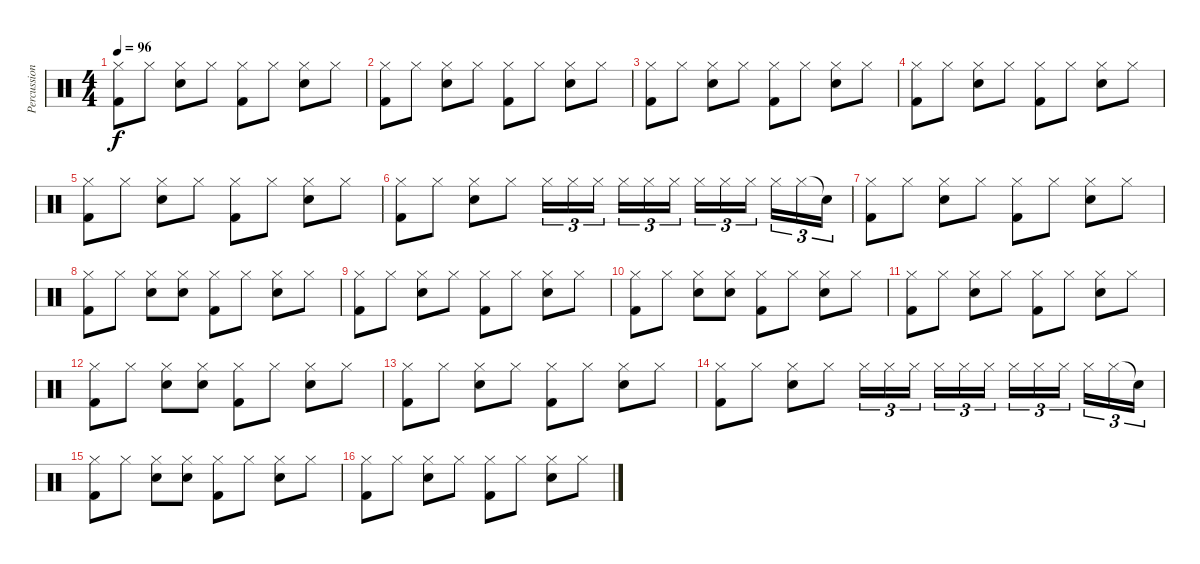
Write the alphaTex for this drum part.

\track ("Percussion" "Percussion") {instrument percussion}
\staff {score}
\articulation defaults
\ts (4 4)
\tempo 96
\clef neutral
\ks c
("Hi-Hat (closed)" "Kick (hit) 2").8{dy f} "Hi-Hat (closed)".8 ("Hi-Hat (closed)" "Snare (hit) 2").8 "Hi-Hat (closed)".8 ("Hi-Hat (closed)" "Kick (hit) 2").8 "Hi-Hat (closed)".8 ("Hi-Hat (closed)" "Snare (hit) 2").8 "Hi-Hat (closed)".8 |
("Hi-Hat (closed)" "Kick (hit) 2").8 "Hi-Hat (closed)".8 ("Hi-Hat (closed)" "Snare (hit) 2").8 "Hi-Hat (closed)".8 ("Hi-Hat (closed)" "Kick (hit) 2").8 "Hi-Hat (closed)".8 ("Hi-Hat (closed)" "Snare (hit) 2").8 "Hi-Hat (closed)".8 |
("Hi-Hat (closed)" "Kick (hit) 2").8 "Hi-Hat (closed)".8 ("Hi-Hat (closed)" "Snare (hit) 2").8 "Hi-Hat (closed)".8 ("Hi-Hat (closed)" "Kick (hit) 2").8 "Hi-Hat (closed)".8 ("Hi-Hat (closed)" "Snare (hit) 2").8 "Hi-Hat (closed)".8 |
("Hi-Hat (closed)" "Kick (hit) 2").8 "Hi-Hat (closed)".8 ("Hi-Hat (closed)" "Snare (hit) 2").8 "Hi-Hat (closed)".8 ("Hi-Hat (closed)" "Kick (hit) 2").8 "Hi-Hat (closed)".8 ("Hi-Hat (closed)" "Snare (hit) 2").8 "Hi-Hat (closed)".8 |
("Hi-Hat (closed)" "Kick (hit) 2").8 "Hi-Hat (closed)".8 ("Hi-Hat (closed)" "Snare (hit) 2").8 "Hi-Hat (closed)".8 ("Hi-Hat (closed)" "Kick (hit) 2").8 "Hi-Hat (closed)".8 ("Hi-Hat (closed)" "Snare (hit) 2").8 "Hi-Hat (closed)".8 |
("Hi-Hat (closed)" "Kick (hit) 2").8 "Hi-Hat (closed)".8 ("Hi-Hat (closed)" "Snare (hit) 2").8 "Hi-Hat (closed)".8 "Hi-Hat (closed)".16{tu (3 2)} "Hi-Hat (closed)".16{tu (3 2)} "Hi-Hat (closed)".16{tu (3 2) beam splitsecondary} "Hi-Hat (closed)".16{tu (3 2)} "Hi-Hat (closed)".16{tu (3 2)} "Hi-Hat (closed)".16{tu (3 2)} "Hi-Hat (closed)".16{tu (3 2)} "Hi-Hat (closed)".16{tu (3 2)} "Hi-Hat (closed)".16{tu (3 2) beam splitsecondary} "Hi-Hat (closed)".16{tu (3 2)} "Hi-Hat (closed)".16{tu (3 2)} "Snare (hit)"{t}.16{tu (3 2)} |
("Hi-Hat (closed)" "Kick (hit) 2").8 "Hi-Hat (closed)".8 ("Hi-Hat (closed)" "Snare (hit) 2").8 "Hi-Hat (closed)".8 ("Hi-Hat (closed)" "Kick (hit) 2").8 "Hi-Hat (closed)".8 ("Hi-Hat (closed)" "Snare (hit) 2").8 "Hi-Hat (closed)".8 |
("Hi-Hat (closed)" "Kick (hit) 2").8 "Hi-Hat (closed)".8 ("Hi-Hat (closed)" "Snare (hit) 2").8 ("Hi-Hat (closed)" "Snare (hit) 2").8 ("Hi-Hat (closed)" "Kick (hit) 2").8 "Hi-Hat (closed)".8 ("Hi-Hat (closed)" "Snare (hit) 2").8 "Hi-Hat (closed)".8 |
("Hi-Hat (closed)" "Kick (hit) 2").8 "Hi-Hat (closed)".8 ("Hi-Hat (closed)" "Snare (hit) 2").8 "Hi-Hat (closed)".8 ("Hi-Hat (closed)" "Kick (hit) 2").8 "Hi-Hat (closed)".8 ("Hi-Hat (closed)" "Snare (hit) 2").8 "Hi-Hat (closed)".8 |
("Hi-Hat (closed)" "Kick (hit) 2").8 "Hi-Hat (closed)".8 ("Hi-Hat (closed)" "Snare (hit) 2").8 ("Hi-Hat (closed)" "Snare (hit) 2").8 ("Hi-Hat (closed)" "Kick (hit) 2").8 "Hi-Hat (closed)".8 ("Hi-Hat (closed)" "Snare (hit) 2").8 "Hi-Hat (closed)".8 |
("Hi-Hat (closed)" "Kick (hit) 2").8 "Hi-Hat (closed)".8 ("Hi-Hat (closed)" "Snare (hit) 2").8 "Hi-Hat (closed)".8 ("Hi-Hat (closed)" "Kick (hit) 2").8 "Hi-Hat (closed)".8 ("Hi-Hat (closed)" "Snare (hit) 2").8 "Hi-Hat (closed)".8 |
("Hi-Hat (closed)" "Kick (hit) 2").8 "Hi-Hat (closed)".8 ("Hi-Hat (closed)" "Snare (hit) 2").8 ("Hi-Hat (closed)" "Snare (hit) 2").8 ("Hi-Hat (closed)" "Kick (hit) 2").8 "Hi-Hat (closed)".8 ("Hi-Hat (closed)" "Snare (hit) 2").8 "Hi-Hat (closed)".8 |
("Hi-Hat (closed)" "Kick (hit) 2").8 "Hi-Hat (closed)".8 ("Hi-Hat (closed)" "Snare (hit) 2").8 "Hi-Hat (closed)".8 ("Hi-Hat (closed)" "Kick (hit) 2").8 "Hi-Hat (closed)".8 ("Hi-Hat (closed)" "Snare (hit) 2").8 "Hi-Hat (closed)".8 |
("Hi-Hat (closed)" "Kick (hit) 2").8 "Hi-Hat (closed)".8 ("Hi-Hat (closed)" "Snare (hit) 2").8 "Hi-Hat (closed)".8 "Hi-Hat (closed)".16{tu (3 2)} "Hi-Hat (closed)".16{tu (3 2)} "Hi-Hat (closed)".16{tu (3 2) beam splitsecondary} "Hi-Hat (closed)".16{tu (3 2)} "Hi-Hat (closed)".16{tu (3 2)} "Hi-Hat (closed)".16{tu (3 2)} "Hi-Hat (closed)".16{tu (3 2)} "Hi-Hat (closed)".16{tu (3 2)} "Hi-Hat (closed)".16{tu (3 2) beam splitsecondary} "Hi-Hat (closed)".16{tu (3 2)} "Hi-Hat (closed)".16{tu (3 2)} "Snare (hit)"{t}.16{tu (3 2)} |
("Hi-Hat (closed)" "Kick (hit) 2").8 "Hi-Hat (closed)".8 ("Hi-Hat (closed)" "Snare (hit) 2").8 ("Hi-Hat (closed)" "Snare (hit) 2").8 ("Hi-Hat (closed)" "Kick (hit) 2").8 "Hi-Hat (closed)".8 ("Hi-Hat (closed)" "Snare (hit) 2").8 "Hi-Hat (closed)".8 |
("Hi-Hat (closed)" "Kick (hit) 2").8 "Hi-Hat (closed)".8 ("Hi-Hat (closed)" "Snare (hit) 2").8 "Hi-Hat (closed)".8 ("Hi-Hat (closed)" "Kick (hit) 2").8 "Hi-Hat (closed)".8 ("Hi-Hat (closed)" "Snare (hit) 2").8 "Hi-Hat (closed)".8
